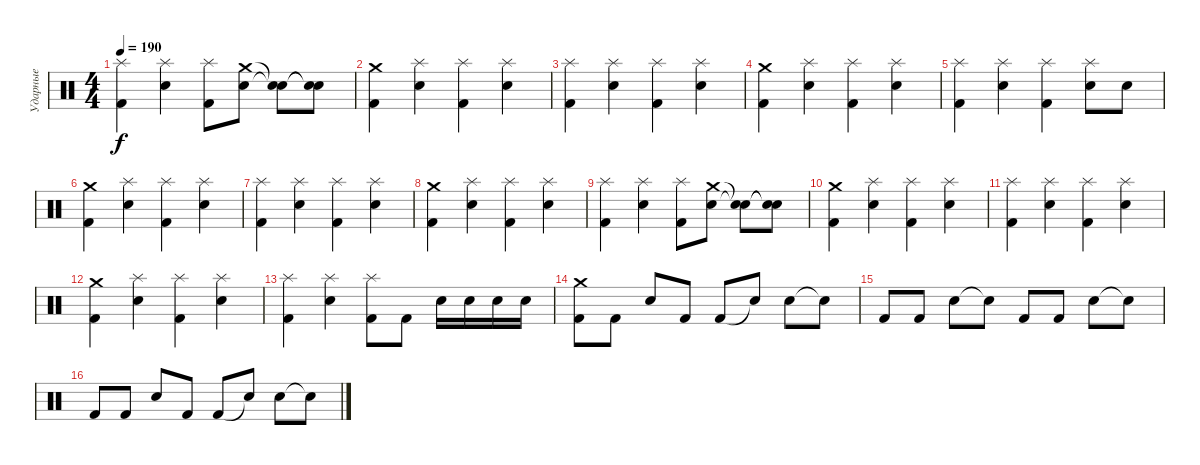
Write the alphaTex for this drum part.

\track ("Ударные" "Ударные") {instrument percussion}
\staff {score}
\articulation defaults
\ts (4 4)
\tempo 190
\clef neutral
\ks c
("Splash (hit)" "Kick (hit) 2").4{dy f} ("Splash (hit)" "Snare (hit) 2").4 ("Splash (hit)" "Kick (hit) 2").8 ("Crash medium (hit)" "Snare (hit) 2").8 ("Snare (hit)"{t} "Snare (hit)"{t}).8 ("Snare (hit)"{t} "Snare (hit)"{t}).8 |
("Crash medium (hit)" "Kick (hit) 2").4 ("Splash (hit)" "Snare (hit) 2").4 ("Splash (hit)" "Kick (hit) 2").4 ("Splash (hit)" "Snare (hit) 2").4 |
("Splash (hit)" "Kick (hit) 2").4 ("Splash (hit)" "Snare (hit) 2").4 ("Splash (hit)" "Kick (hit) 2").4 ("Splash (hit)" "Snare (hit) 2").4 |
("Crash medium (hit)" "Kick (hit) 2").4 ("Splash (hit)" "Snare (hit) 2").4 ("Splash (hit)" "Kick (hit) 2").4 ("Splash (hit)" "Snare (hit) 2").4 |
("Splash (hit)" "Kick (hit) 2").4 ("Splash (hit)" "Snare (hit) 2").4 ("Splash (hit)" "Kick (hit) 2").4 ("Splash (hit)" "Snare (hit) 2").8 "Snare (hit) 2".8 |
("Crash medium (hit)" "Kick (hit) 2").4 ("Splash (hit)" "Snare (hit) 2").4 ("Splash (hit)" "Kick (hit) 2").4 ("Splash (hit)" "Snare (hit) 2").4 |
("Splash (hit)" "Kick (hit) 2").4 ("Splash (hit)" "Snare (hit) 2").4 ("Splash (hit)" "Kick (hit) 2").4 ("Splash (hit)" "Snare (hit) 2").4 |
("Crash medium (hit)" "Kick (hit) 2").4 ("Splash (hit)" "Snare (hit) 2").4 ("Splash (hit)" "Kick (hit) 2").4 ("Splash (hit)" "Snare (hit) 2").4 |
("Splash (hit)" "Kick (hit) 2").4 ("Splash (hit)" "Snare (hit) 2").4 ("Splash (hit)" "Kick (hit) 2").8 ("Crash medium (hit)" "Snare (hit) 2").8 ("Snare (hit)"{t} "Snare (hit)"{t}).8 ("Snare (hit)"{t} "Snare (hit)"{t}).8 |
("Crash medium (hit)" "Kick (hit) 2").4 ("Splash (hit)" "Snare (hit) 2").4 ("Splash (hit)" "Kick (hit) 2").4 ("Splash (hit)" "Snare (hit) 2").4 |
("Splash (hit)" "Kick (hit) 2").4 ("Splash (hit)" "Snare (hit) 2").4 ("Splash (hit)" "Kick (hit) 2").4 ("Splash (hit)" "Snare (hit) 2").4 |
("Crash medium (hit)" "Kick (hit) 2").4 ("Splash (hit)" "Snare (hit) 2").4 ("Splash (hit)" "Kick (hit) 2").4 ("Splash (hit)" "Snare (hit) 2").4 |
("Splash (hit)" "Kick (hit) 2").4 ("Splash (hit)" "Snare (hit) 2").4 ("Splash (hit)" "Kick (hit) 2").8 "Kick (hit) 2".8 "Snare (hit) 2".16 "Snare (hit) 2".16 "Snare (hit) 2".16 "Snare (hit) 2".16 |
("Crash medium (hit)" "Kick (hit) 2").8 "Kick (hit) 2".8 "Snare (hit) 2".8 "Kick (hit) 2".8 "Kick (hit) 2".8 "Snare (hit)"{t}.8 "Snare (hit) 2".8 "Snare (hit)"{t}.8 |
"Kick (hit) 2".8 "Kick (hit) 2".8 "Snare (hit) 2".8 "Snare (hit)"{t}.8 "Kick (hit) 2".8 "Kick (hit) 2".8 "Snare (hit) 2".8 "Snare (hit)"{t}.8 |
"Kick (hit) 2".8 "Kick (hit) 2".8 "Snare (hit) 2".8 "Kick (hit) 2".8 "Kick (hit) 2".8 "Snare (hit)"{t}.8 "Snare (hit) 2".8 "Snare (hit)"{t}.8
